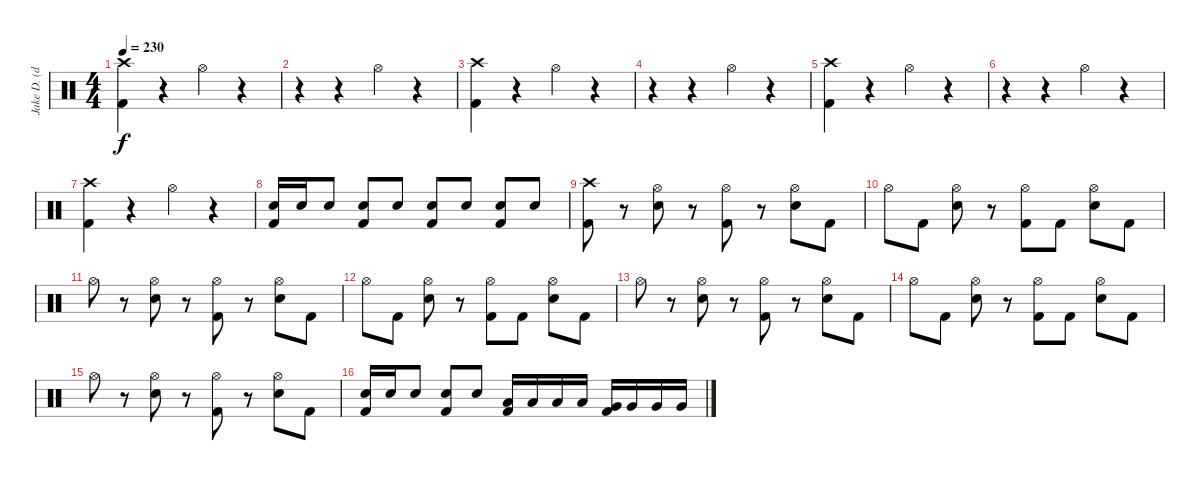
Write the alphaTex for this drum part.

\track ("Jake D. (drums)" "Jake D. (d") {instrument percussion}
\staff {score}
\articulation defaults
\ts (4 4)
\tempo 230
\clef neutral
\ks c
("Crash high (hit)" "Kick (hit) 2").4{dy f volume 16} r.4 "Hi-Hat (open)".4 r.4 |
r.4 r.4 "Hi-Hat (open)".4 r.4 |
("Crash high (hit)" "Kick (hit) 2").4 r.4 "Hi-Hat (open)".4 r.4 |
r.4 r.4 "Hi-Hat (open)".4 r.4 |
("Crash high (hit)" "Kick (hit) 2").4 r.4 "Hi-Hat (open)".4 r.4 |
r.4 r.4 "Hi-Hat (open)".4 r.4 |
("Crash high (hit)" "Kick (hit) 2").4 r.4 "Hi-Hat (open)".4 r.4 |
("Electric Snare (hit)" "Kick (hit) 2").16 "Electric Snare (hit)".16 "Electric Snare (hit)".8 ("Electric Snare (hit)" "Kick (hit) 2").8 "Electric Snare (hit)".8 ("Electric Snare (hit)" "Kick (hit) 2").8 "Electric Snare (hit)".8 ("Electric Snare (hit)" "Kick (hit) 2").8 "Electric Snare (hit)".8 |
("Crash high (hit)" "Kick (hit) 2").8 r.8 ("Hi-Hat (open)" "Electric Snare (hit)").8 r.8 ("Hi-Hat (open)" "Kick (hit) 2").8 r.8 ("Hi-Hat (open)" "Electric Snare (hit)").8 "Kick (hit) 2".8 |
"Hi-Hat (open)".8 "Kick (hit) 2".8 ("Hi-Hat (open)" "Electric Snare (hit)").8 r.8 ("Hi-Hat (open)" "Kick (hit) 2").8 "Kick (hit) 2".8 ("Hi-Hat (open)" "Electric Snare (hit)").8 "Kick (hit) 2".8 |
"Hi-Hat (open)".8 r.8 ("Hi-Hat (open)" "Electric Snare (hit)").8 r.8 ("Hi-Hat (open)" "Kick (hit) 2").8 r.8 ("Hi-Hat (open)" "Electric Snare (hit)").8 "Kick (hit) 2".8 |
"Hi-Hat (open)".8 "Kick (hit) 2".8 ("Hi-Hat (open)" "Electric Snare (hit)").8 r.8 ("Hi-Hat (open)" "Kick (hit) 2").8 "Kick (hit) 2".8 ("Hi-Hat (open)" "Electric Snare (hit)").8 "Kick (hit) 2".8 |
"Hi-Hat (open)".8 r.8 ("Hi-Hat (open)" "Electric Snare (hit)").8 r.8 ("Hi-Hat (open)" "Kick (hit) 2").8 r.8 ("Hi-Hat (open)" "Electric Snare (hit)").8 "Kick (hit) 2".8 |
"Hi-Hat (open)".8 "Kick (hit) 2".8 ("Hi-Hat (open)" "Electric Snare (hit)").8 r.8 ("Hi-Hat (open)" "Kick (hit) 2").8 "Kick (hit) 2".8 ("Hi-Hat (open)" "Electric Snare (hit)").8 "Kick (hit) 2".8 |
"Hi-Hat (open)".8 r.8 ("Hi-Hat (open)" "Electric Snare (hit)").8 r.8 ("Hi-Hat (open)" "Kick (hit) 2").8 r.8 ("Hi-Hat (open)" "Electric Snare (hit)").8 "Kick (hit) 2".8 |
("Electric Snare (hit)" "Kick (hit) 2").16 "Electric Snare (hit)".16 "Electric Snare (hit)".8 ("Electric Snare (hit)" "Kick (hit) 2").8 "Electric Snare (hit)".8 ("Low Tom (hit)" "Kick (hit) 2").16 "Low Tom (hit)".16 "Low Tom (hit)".16 "Low Tom (hit)".16 ("Very Low Tom (hit)" "Kick (hit) 2").16 "Very Low Tom (hit)".16 "Very Low Tom (hit)".16 "Very Low Tom (hit)".16
